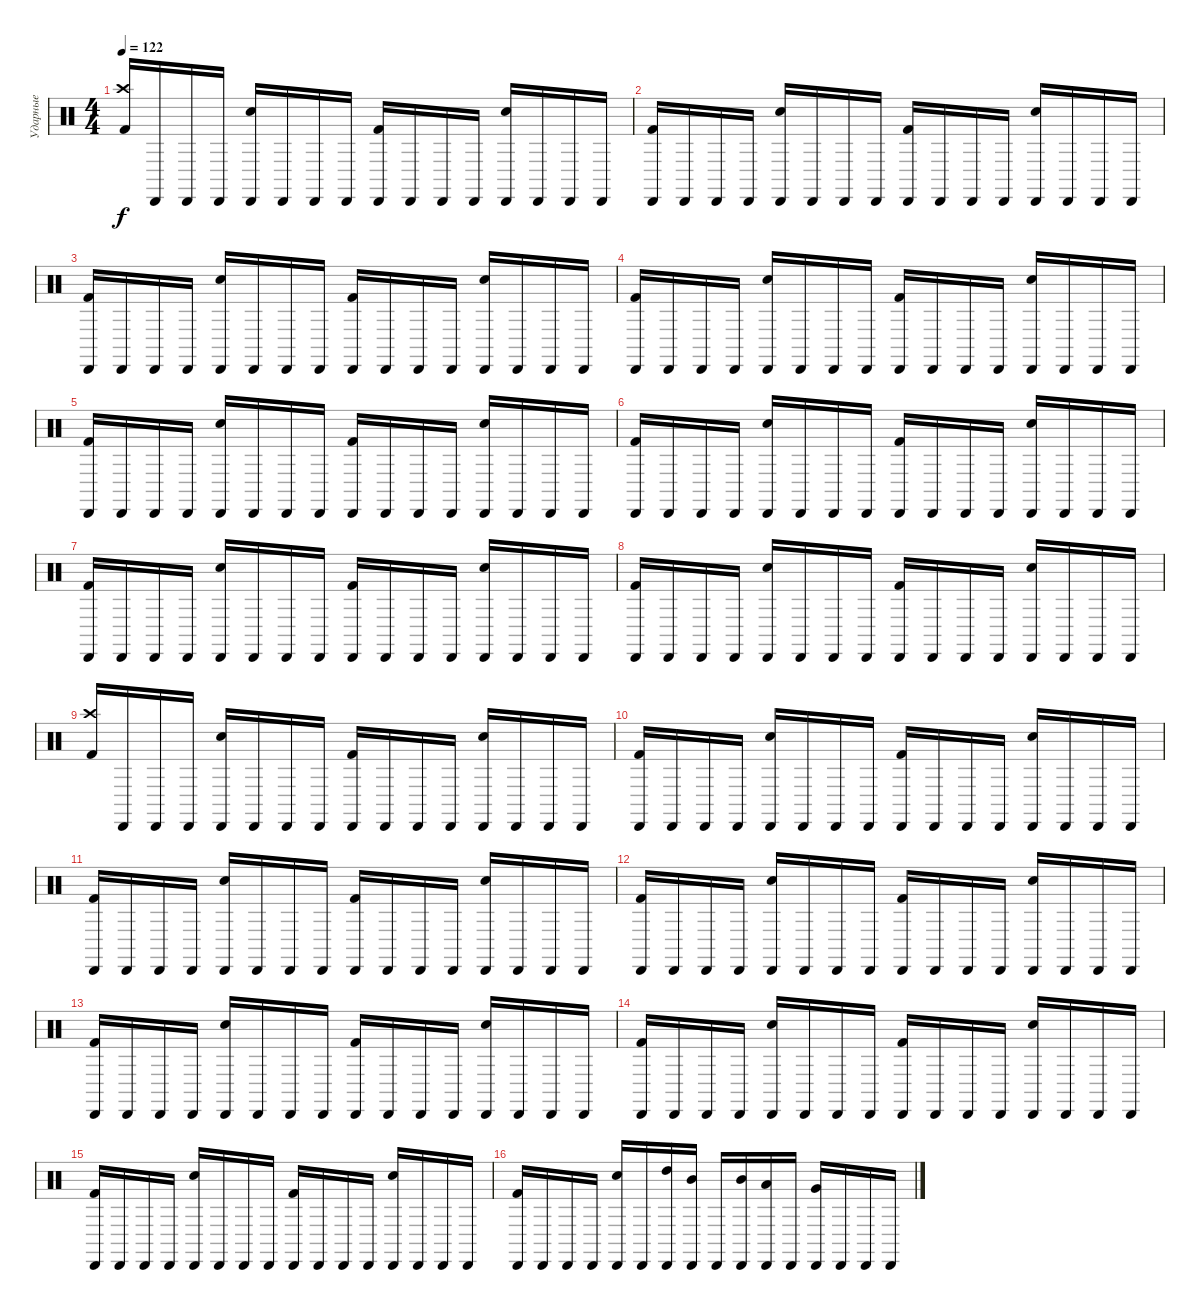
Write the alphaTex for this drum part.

\track ("Ударные" "Ударные") {instrument percussion}
\staff {score}
\articulation defaults
\ts (4 4)
\tempo 122
\clef neutral
\ks c
("Crash high (hit)" "Kick (hit) 2").16{dy f} "Cabasa (hit)".16 "Cabasa (hit)".16 "Cabasa (hit)".16 ("Cabasa (hit)" "Snare (hit) 2").16 "Cabasa (hit)".16 "Cabasa (hit)".16 "Cabasa (hit)".16 ("Cabasa (hit)" "Kick (hit) 2").16 "Cabasa (hit)".16 "Cabasa (hit)".16 "Cabasa (hit)".16 ("Cabasa (hit)" "Snare (hit) 2").16 "Cabasa (hit)".16 "Cabasa (hit)".16 "Cabasa (hit)".16 |
("Cabasa (hit)" "Kick (hit) 2").16 "Cabasa (hit)".16 "Cabasa (hit)".16 "Cabasa (hit)".16 ("Cabasa (hit)" "Snare (hit) 2").16 "Cabasa (hit)".16 "Cabasa (hit)".16 "Cabasa (hit)".16 ("Cabasa (hit)" "Kick (hit) 2").16 "Cabasa (hit)".16 "Cabasa (hit)".16 "Cabasa (hit)".16 ("Cabasa (hit)" "Snare (hit) 2").16 "Cabasa (hit)".16 "Cabasa (hit)".16 "Cabasa (hit)".16 |
("Cabasa (hit)" "Kick (hit) 2").16 "Cabasa (hit)".16 "Cabasa (hit)".16 "Cabasa (hit)".16 ("Cabasa (hit)" "Snare (hit) 2").16 "Cabasa (hit)".16 "Cabasa (hit)".16 "Cabasa (hit)".16 ("Cabasa (hit)" "Kick (hit) 2").16 "Cabasa (hit)".16 "Cabasa (hit)".16 "Cabasa (hit)".16 ("Cabasa (hit)" "Snare (hit) 2").16 "Cabasa (hit)".16 "Cabasa (hit)".16 "Cabasa (hit)".16 |
("Cabasa (hit)" "Kick (hit) 2").16 "Cabasa (hit)".16 "Cabasa (hit)".16 "Cabasa (hit)".16 ("Cabasa (hit)" "Snare (hit) 2").16 "Cabasa (hit)".16 "Cabasa (hit)".16 "Cabasa (hit)".16 ("Cabasa (hit)" "Kick (hit) 2").16 "Cabasa (hit)".16 "Cabasa (hit)".16 "Cabasa (hit)".16 ("Cabasa (hit)" "Snare (hit) 2").16 "Cabasa (hit)".16 "Cabasa (hit)".16 "Cabasa (hit)".16 |
("Cabasa (hit)" "Kick (hit) 2").16 "Cabasa (hit)".16 "Cabasa (hit)".16 "Cabasa (hit)".16 ("Cabasa (hit)" "Snare (hit) 2").16 "Cabasa (hit)".16 "Cabasa (hit)".16 "Cabasa (hit)".16 ("Cabasa (hit)" "Kick (hit) 2").16 "Cabasa (hit)".16 "Cabasa (hit)".16 "Cabasa (hit)".16 ("Cabasa (hit)" "Snare (hit) 2").16 "Cabasa (hit)".16 "Cabasa (hit)".16 "Cabasa (hit)".16 |
("Cabasa (hit)" "Kick (hit) 2").16 "Cabasa (hit)".16 "Cabasa (hit)".16 "Cabasa (hit)".16 ("Cabasa (hit)" "Snare (hit) 2").16 "Cabasa (hit)".16 "Cabasa (hit)".16 "Cabasa (hit)".16 ("Cabasa (hit)" "Kick (hit) 2").16 "Cabasa (hit)".16 "Cabasa (hit)".16 "Cabasa (hit)".16 ("Cabasa (hit)" "Snare (hit) 2").16 "Cabasa (hit)".16 "Cabasa (hit)".16 "Cabasa (hit)".16 |
("Cabasa (hit)" "Kick (hit) 2").16 "Cabasa (hit)".16 "Cabasa (hit)".16 "Cabasa (hit)".16 ("Cabasa (hit)" "Snare (hit) 2").16 "Cabasa (hit)".16 "Cabasa (hit)".16 "Cabasa (hit)".16 ("Cabasa (hit)" "Kick (hit) 2").16 "Cabasa (hit)".16 "Cabasa (hit)".16 "Cabasa (hit)".16 ("Cabasa (hit)" "Snare (hit) 2").16 "Cabasa (hit)".16 "Cabasa (hit)".16 "Cabasa (hit)".16 |
("Cabasa (hit)" "Kick (hit) 2").16 "Cabasa (hit)".16 "Cabasa (hit)".16 "Cabasa (hit)".16 ("Cabasa (hit)" "Snare (hit) 2").16 "Cabasa (hit)".16 "Cabasa (hit)".16 "Cabasa (hit)".16 ("Cabasa (hit)" "Kick (hit) 2").16 "Cabasa (hit)".16 "Cabasa (hit)".16 "Cabasa (hit)".16 ("Cabasa (hit)" "Snare (hit) 2").16 "Cabasa (hit)".16 "Cabasa (hit)".16 "Cabasa (hit)".16 |
("Crash high (hit)" "Kick (hit) 2").16 "Cabasa (hit)".16 "Cabasa (hit)".16 "Cabasa (hit)".16 ("Cabasa (hit)" "Snare (hit) 2").16 "Cabasa (hit)".16 "Cabasa (hit)".16 "Cabasa (hit)".16 ("Cabasa (hit)" "Kick (hit) 2").16 "Cabasa (hit)".16 "Cabasa (hit)".16 "Cabasa (hit)".16 ("Cabasa (hit)" "Snare (hit) 2").16 "Cabasa (hit)".16 "Cabasa (hit)".16 "Cabasa (hit)".16 |
("Cabasa (hit)" "Kick (hit) 2").16 "Cabasa (hit)".16 "Cabasa (hit)".16 "Cabasa (hit)".16 ("Cabasa (hit)" "Snare (hit) 2").16 "Cabasa (hit)".16 "Cabasa (hit)".16 "Cabasa (hit)".16 ("Cabasa (hit)" "Kick (hit) 2").16 "Cabasa (hit)".16 "Cabasa (hit)".16 "Cabasa (hit)".16 ("Cabasa (hit)" "Snare (hit) 2").16 "Cabasa (hit)".16 "Cabasa (hit)".16 "Cabasa (hit)".16 |
("Cabasa (hit)" "Kick (hit) 2").16 "Cabasa (hit)".16 "Cabasa (hit)".16 "Cabasa (hit)".16 ("Cabasa (hit)" "Snare (hit) 2").16 "Cabasa (hit)".16 "Cabasa (hit)".16 "Cabasa (hit)".16 ("Cabasa (hit)" "Kick (hit) 2").16 "Cabasa (hit)".16 "Cabasa (hit)".16 "Cabasa (hit)".16 ("Cabasa (hit)" "Snare (hit) 2").16 "Cabasa (hit)".16 "Cabasa (hit)".16 "Cabasa (hit)".16 |
("Cabasa (hit)" "Kick (hit) 2").16 "Cabasa (hit)".16 "Cabasa (hit)".16 "Cabasa (hit)".16 ("Cabasa (hit)" "Snare (hit) 2").16 "Cabasa (hit)".16 "Cabasa (hit)".16 "Cabasa (hit)".16 ("Cabasa (hit)" "Kick (hit) 2").16 "Cabasa (hit)".16 "Cabasa (hit)".16 "Cabasa (hit)".16 ("Cabasa (hit)" "Snare (hit) 2").16 "Cabasa (hit)".16 "Cabasa (hit)".16 "Cabasa (hit)".16 |
("Cabasa (hit)" "Kick (hit) 2").16 "Cabasa (hit)".16 "Cabasa (hit)".16 "Cabasa (hit)".16 ("Cabasa (hit)" "Snare (hit) 2").16 "Cabasa (hit)".16 "Cabasa (hit)".16 "Cabasa (hit)".16 ("Cabasa (hit)" "Kick (hit) 2").16 "Cabasa (hit)".16 "Cabasa (hit)".16 "Cabasa (hit)".16 ("Cabasa (hit)" "Snare (hit) 2").16 "Cabasa (hit)".16 "Cabasa (hit)".16 "Cabasa (hit)".16 |
("Cabasa (hit)" "Kick (hit) 2").16 "Cabasa (hit)".16 "Cabasa (hit)".16 "Cabasa (hit)".16 ("Cabasa (hit)" "Snare (hit) 2").16 "Cabasa (hit)".16 "Cabasa (hit)".16 "Cabasa (hit)".16 ("Cabasa (hit)" "Kick (hit) 2").16 "Cabasa (hit)".16 "Cabasa (hit)".16 "Cabasa (hit)".16 ("Cabasa (hit)" "Snare (hit) 2").16 "Cabasa (hit)".16 "Cabasa (hit)".16 "Cabasa (hit)".16 |
("Cabasa (hit)" "Kick (hit) 2").16 "Cabasa (hit)".16 "Cabasa (hit)".16 "Cabasa (hit)".16 ("Cabasa (hit)" "Snare (hit) 2").16 "Cabasa (hit)".16 "Cabasa (hit)".16 "Cabasa (hit)".16 ("Cabasa (hit)" "Kick (hit) 2").16 "Cabasa (hit)".16 "Cabasa (hit)".16 "Cabasa (hit)".16 ("Cabasa (hit)" "Snare (hit) 2").16 "Cabasa (hit)".16 "Cabasa (hit)".16 "Cabasa (hit)".16 |
("Cabasa (hit)" "Kick (hit) 2").16 "Cabasa (hit)".16 "Cabasa (hit)".16 "Cabasa (hit)".16 ("Cabasa (hit)" "Snare (hit) 2").16 "Cabasa (hit)".16 ("Cabasa (hit)" "High Tom (hit)").16 ("Cabasa (hit)" "Mid Tom (hit)").16 "Cabasa (hit)".16 ("Cabasa (hit)" "Mid Tom (hit)").16 ("Cabasa (hit)" "Low Tom (hit)").16 "Cabasa (hit)".16 ("Cabasa (hit)" "Very Low Tom (hit)").16 "Cabasa (hit)".16 "Cabasa (hit)".16 "Cabasa (hit)".16
